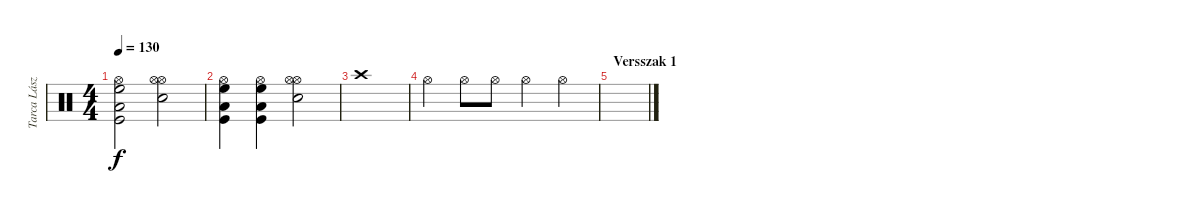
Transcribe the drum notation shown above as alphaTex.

\track ("Tarca László" "Tarca Lász") {instrument percussion}
\staff {score}
\articulation defaults
\ts (4 4)
\tempo 130
\clef neutral
\ks c
("Hi-Hat (open)" "High Floor Tom (hit)" "Low Tom (hit)" "Kick (hit)").2{dy f} ("Hi-Hat (open)" "Snare (hit) 2" "Hi-Hat (open)").2 |
("Hi-Hat (open)" "High Floor Tom (hit)" "Low Tom (hit)" "Kick (hit)").4 ("Hi-Hat (open)" "High Floor Tom (hit)" "Low Tom (hit)" "Kick (hit)").4 ("Hi-Hat (open)" "Snare (hit) 2" "Hi-Hat (open)").2 |
"Crash high (hit)".1 |
"Hi-Hat (open)".4 "Hi-Hat (open)".8 "Hi-Hat (open)".8 "Hi-Hat (open)".4 "Hi-Hat (open)".4 |
\section ("" "Versszak 1")
